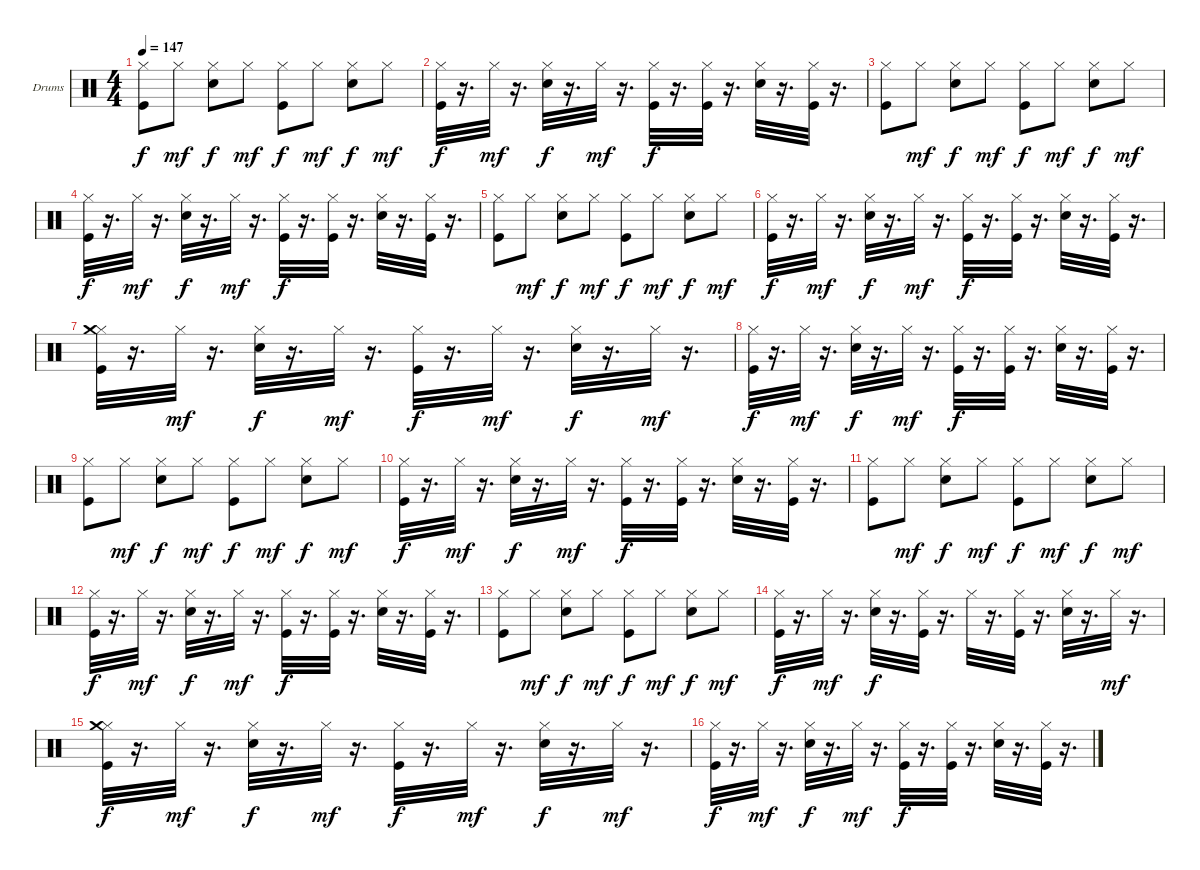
\bracketExtendMode groupsimilarinstruments
\firstSystemTrackNameOrientation horizontal
\otherSystemsTrackNameOrientation horizontal
\track ("Drumkit" "Drums") {instrument percussion}
\staff {score}
\articulation defaults
\ts (4 4)
\tempo 147
\clef neutral
\ks c
("Hi-Hat (closed)" "Kick (hit)").8{dy f} "Hi-Hat (closed)".8{dy mf} ("Hi-Hat (closed)" "Snare (hit) 2").8{dy f} "Hi-Hat (closed)".8{dy mf} ("Hi-Hat (closed)" "Kick (hit)").8{dy f} "Hi-Hat (closed)".8{dy mf} ("Hi-Hat (closed)" "Snare (hit) 2").8{dy f} "Hi-Hat (closed)".8{dy mf} |
("Kick (hit)" "Hi-Hat (closed)").32{dy f} r.16{d} "Hi-Hat (closed)".32{dy mf} r.16{d} ("Snare (hit) 2" "Hi-Hat (closed)").32{dy f} r.16{d} "Hi-Hat (closed)".32{dy mf} r.16{d} ("Kick (hit)" "Hi-Hat (closed)").32{dy f} r.16{d} ("Kick (hit)" "Hi-Hat (closed)").32 r.16{d} ("Snare (hit) 2" "Hi-Hat (closed)").32 r.16{d} ("Kick (hit)" "Hi-Hat (closed)").32 r.16{d} |
("Hi-Hat (closed)" "Kick (hit)").8 "Hi-Hat (closed)".8{dy mf} ("Hi-Hat (closed)" "Snare (hit) 2").8{dy f} "Hi-Hat (closed)".8{dy mf} ("Hi-Hat (closed)" "Kick (hit)").8{dy f} "Hi-Hat (closed)".8{dy mf} ("Hi-Hat (closed)" "Snare (hit) 2").8{dy f} "Hi-Hat (closed)".8{dy mf} |
("Kick (hit)" "Hi-Hat (closed)").32{dy f} r.16{d} "Hi-Hat (closed)".32{dy mf} r.16{d} ("Snare (hit) 2" "Hi-Hat (closed)").32{dy f} r.16{d} "Hi-Hat (closed)".32{dy mf} r.16{d} ("Kick (hit)" "Hi-Hat (closed)").32{dy f} r.16{d} ("Kick (hit)" "Hi-Hat (closed)").32 r.16{d} ("Snare (hit) 2" "Hi-Hat (closed)").32 r.16{d} ("Kick (hit)" "Hi-Hat (closed)").32 r.16{d} |
("Hi-Hat (closed)" "Kick (hit)").8 "Hi-Hat (closed)".8{dy mf} ("Hi-Hat (closed)" "Snare (hit) 2").8{dy f} "Hi-Hat (closed)".8{dy mf} ("Hi-Hat (closed)" "Kick (hit)").8{dy f} "Hi-Hat (closed)".8{dy mf} ("Hi-Hat (closed)" "Snare (hit) 2").8{dy f} "Hi-Hat (closed)".8{dy mf} |
("Kick (hit)" "Hi-Hat (closed)").32{dy f} r.16{d} "Hi-Hat (closed)".32{dy mf} r.16{d} ("Snare (hit) 2" "Hi-Hat (closed)").32{dy f} r.16{d} "Hi-Hat (closed)".32{dy mf} r.16{d} ("Kick (hit)" "Hi-Hat (closed)").32{dy f} r.16{d} ("Kick (hit)" "Hi-Hat (closed)").32 r.16{d} ("Snare (hit) 2" "Hi-Hat (closed)").32 r.16{d} ("Kick (hit)" "Hi-Hat (closed)").32 r.16{d} |
("Kick (hit)" "Hi-Hat (closed)" "Crash medium (hit)").32 r.16{d} "Hi-Hat (closed)".32{dy mf} r.16{d} ("Snare (hit) 2" "Hi-Hat (closed)").32{dy f} r.16{d} "Hi-Hat (closed)".32{dy mf} r.16{d} ("Kick (hit)" "Hi-Hat (closed)").32{dy f} r.16{d} "Hi-Hat (closed)".32{dy mf} r.16{d} ("Snare (hit) 2" "Hi-Hat (closed)").32{dy f} r.16{d} "Hi-Hat (closed)".32{dy mf} r.16{d} |
("Kick (hit)" "Hi-Hat (closed)").32{dy f} r.16{d} "Hi-Hat (closed)".32{dy mf} r.16{d} ("Snare (hit) 2" "Hi-Hat (closed)").32{dy f} r.16{d} "Hi-Hat (closed)".32{dy mf} r.16{d} ("Kick (hit)" "Hi-Hat (closed)").32{dy f} r.16{d} ("Kick (hit)" "Hi-Hat (closed)").32 r.16{d} ("Snare (hit) 2" "Hi-Hat (closed)").32 r.16{d} ("Kick (hit)" "Hi-Hat (closed)").32 r.16{d} |
("Hi-Hat (closed)" "Kick (hit)").8 "Hi-Hat (closed)".8{dy mf} ("Hi-Hat (closed)" "Snare (hit) 2").8{dy f} "Hi-Hat (closed)".8{dy mf} ("Hi-Hat (closed)" "Kick (hit)").8{dy f} "Hi-Hat (closed)".8{dy mf} ("Hi-Hat (closed)" "Snare (hit) 2").8{dy f} "Hi-Hat (closed)".8{dy mf} |
("Kick (hit)" "Hi-Hat (closed)").32{dy f} r.16{d} "Hi-Hat (closed)".32{dy mf} r.16{d} ("Snare (hit) 2" "Hi-Hat (closed)").32{dy f} r.16{d} "Hi-Hat (closed)".32{dy mf} r.16{d} ("Kick (hit)" "Hi-Hat (closed)").32{dy f} r.16{d} ("Kick (hit)" "Hi-Hat (closed)").32 r.16{d} ("Snare (hit) 2" "Hi-Hat (closed)").32 r.16{d} ("Kick (hit)" "Hi-Hat (closed)").32 r.16{d} |
("Hi-Hat (closed)" "Kick (hit)").8 "Hi-Hat (closed)".8{dy mf} ("Hi-Hat (closed)" "Snare (hit) 2").8{dy f} "Hi-Hat (closed)".8{dy mf} ("Hi-Hat (closed)" "Kick (hit)").8{dy f} "Hi-Hat (closed)".8{dy mf} ("Hi-Hat (closed)" "Snare (hit) 2").8{dy f} "Hi-Hat (closed)".8{dy mf} |
("Kick (hit)" "Hi-Hat (closed)").32{dy f} r.16{d} "Hi-Hat (closed)".32{dy mf} r.16{d} ("Snare (hit) 2" "Hi-Hat (closed)").32{dy f} r.16{d} "Hi-Hat (closed)".32{dy mf} r.16{d} ("Kick (hit)" "Hi-Hat (closed)").32{dy f} r.16{d} ("Kick (hit)" "Hi-Hat (closed)").32 r.16{d} ("Snare (hit) 2" "Hi-Hat (closed)").32 r.16{d} ("Kick (hit)" "Hi-Hat (closed)").32 r.16{d} |
("Hi-Hat (closed)" "Kick (hit)").8 "Hi-Hat (closed)".8{dy mf} ("Hi-Hat (closed)" "Snare (hit) 2").8{dy f} "Hi-Hat (closed)".8{dy mf} ("Hi-Hat (closed)" "Kick (hit)").8{dy f} "Hi-Hat (closed)".8{dy mf} ("Hi-Hat (closed)" "Snare (hit) 2").8{dy f} "Hi-Hat (closed)".8{dy mf} |
("Kick (hit)" "Hi-Hat (closed)").32{dy f} r.16{d} "Hi-Hat (closed)".32{dy mf} r.16{d} ("Snare (hit) 2" "Hi-Hat (closed)").32{dy f} r.16{d} ("Kick (hit)" "Hi-Hat (closed)").32 r.16{d} "Hi-Hat (closed)".32 r.16{d} ("Kick (hit)" "Hi-Hat (closed)").32 r.16{d} ("Snare (hit) 2" "Hi-Hat (closed)").32 r.16{d} "Hi-Hat (closed)".32{dy mf} r.16{d} |
("Kick (hit)" "Hi-Hat (closed)" "Crash medium (hit)").32{dy f} r.16{d} "Hi-Hat (closed)".32{dy mf} r.16{d} ("Snare (hit) 2" "Hi-Hat (closed)").32{dy f} r.16{d} "Hi-Hat (closed)".32{dy mf} r.16{d} ("Kick (hit)" "Hi-Hat (closed)").32{dy f} r.16{d} "Hi-Hat (closed)".32{dy mf} r.16{d} ("Snare (hit) 2" "Hi-Hat (closed)").32{dy f} r.16{d} "Hi-Hat (closed)".32{dy mf} r.16{d} |
("Kick (hit)" "Hi-Hat (closed)").32{dy f} r.16{d} "Hi-Hat (closed)".32{dy mf} r.16{d} ("Snare (hit) 2" "Hi-Hat (closed)").32{dy f} r.16{d} "Hi-Hat (closed)".32{dy mf} r.16{d} ("Kick (hit)" "Hi-Hat (closed)").32{dy f} r.16{d} ("Kick (hit)" "Hi-Hat (closed)").32 r.16{d} ("Snare (hit) 2" "Hi-Hat (closed)").32 r.16{d} ("Kick (hit)" "Hi-Hat (closed)").32 r.16{d}
